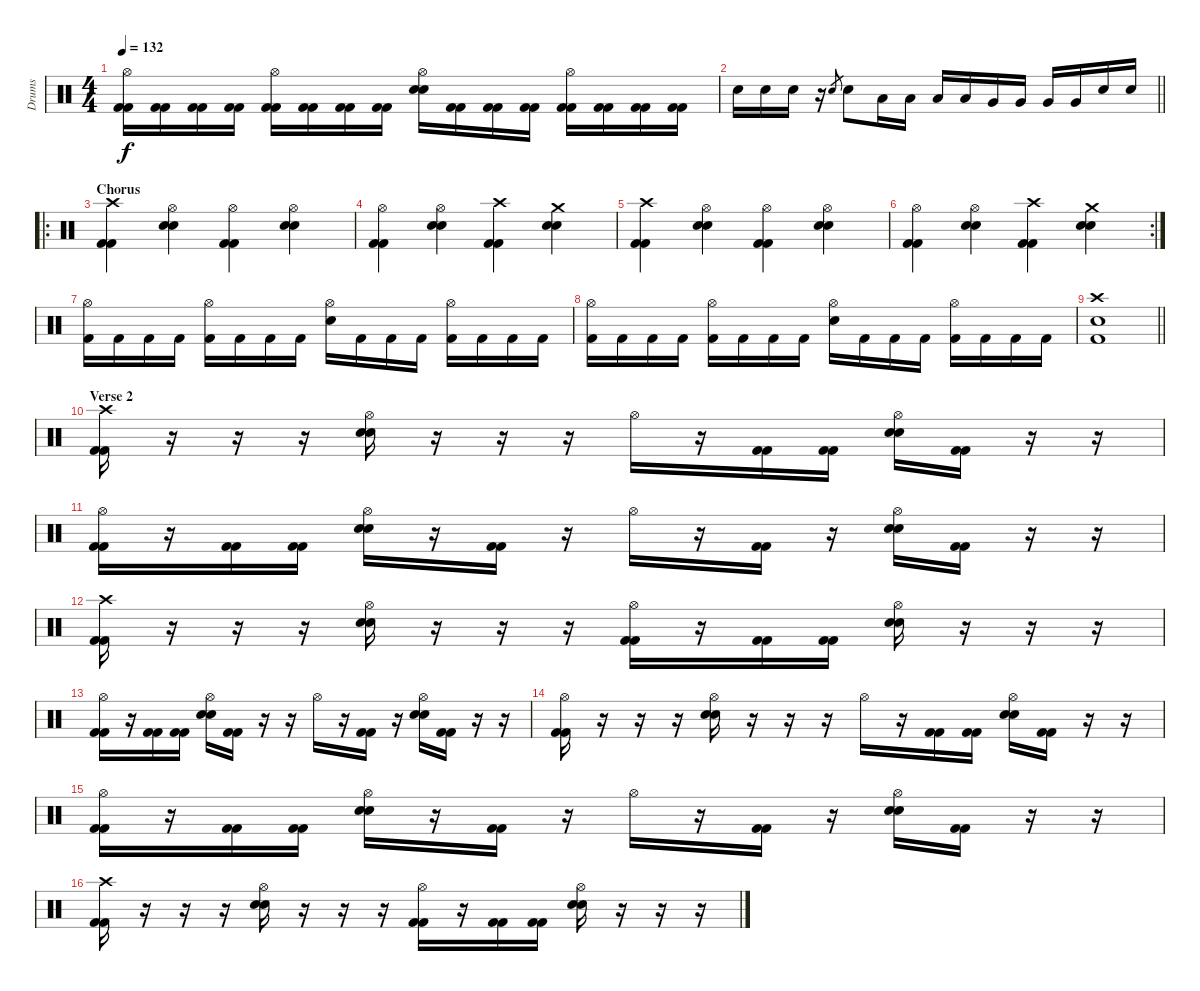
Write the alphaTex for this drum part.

\track ("Drums" "Drums") {instrument percussion}
\staff {score}
\articulation defaults
\ts (4 4)
\tempo 132
\clef neutral
\ks c
("Hi-Hat (open)" "Kick (hit) 2" "Kick (hit) 2").16{dy f} ("Kick (hit) 2" "Kick (hit) 2").16 ("Kick (hit) 2" "Kick (hit) 2").16 ("Kick (hit) 2" "Kick (hit) 2").16 ("Hi-Hat (open)" "Kick (hit) 2" "Kick (hit) 2").16 ("Kick (hit) 2" "Kick (hit) 2").16 ("Kick (hit) 2" "Kick (hit) 2").16 ("Kick (hit) 2" "Kick (hit) 2").16 ("Hi-Hat (open)" "Snare (hit) 2" "Snare (hit) 2").16 ("Kick (hit) 2" "Kick (hit) 2").16 ("Kick (hit) 2" "Kick (hit) 2").16 ("Kick (hit) 2" "Kick (hit) 2").16 ("Hi-Hat (open)" "Kick (hit) 2" "Kick (hit) 2").16 ("Kick (hit) 2" "Kick (hit) 2").16 ("Kick (hit) 2" "Kick (hit) 2").16 ("Kick (hit) 2" "Kick (hit) 2").16 |
\barLineRight lightlight "Electric Snare (hit)".16 "Electric Snare (hit)".16 "Electric Snare (hit)".16
r.16 "Electric Snare (hit)".8{gr} "Electric Snare (hit)".8 "Low Tom (hit)".16 "Low Tom (hit)".16 "Low Tom (hit)".16 "Low Tom (hit)".16 "Very Low Tom (hit)".16 "Very Low Tom (hit)".16 "Very Low Tom (hit)".16 "Very Low Tom (hit)".16 "Snare (hit) 2".16 "Snare (hit) 2".16 |
\ro
\section ("" "Chorus")
("Crash high (hit)" "Kick (hit) 2" "Kick (hit) 2").4 ("Hi-Hat (open)" "Snare (hit) 2" "Snare (hit) 2").4 ("Hi-Hat (open)" "Kick (hit) 2" "Kick (hit) 2").4 ("Hi-Hat (open)" "Snare (hit) 2" "Snare (hit) 2").4 |
("Hi-Hat (open)" "Kick (hit) 2" "Kick (hit) 2").4 ("Hi-Hat (open)" "Snare (hit) 2" "Snare (hit) 2").4 ("Crash high (hit)" "Kick (hit) 2" "Kick (hit) 2").4 ("Crash medium (hit)" "Snare (hit) 2" "Snare (hit) 2").4 |
("Crash high (hit)" "Kick (hit) 2" "Kick (hit) 2").4 ("Hi-Hat (open)" "Snare (hit) 2" "Snare (hit) 2").4 ("Hi-Hat (open)" "Kick (hit) 2" "Kick (hit) 2").4 ("Hi-Hat (open)" "Snare (hit) 2" "Snare (hit) 2").4 |
\rc 2
("Hi-Hat (open)" "Kick (hit) 2" "Kick (hit) 2").4 ("Hi-Hat (open)" "Snare (hit) 2" "Snare (hit) 2").4 ("Crash high (hit)" "Kick (hit) 2" "Kick (hit) 2").4 ("Crash medium (hit)" "Snare (hit) 2" "Snare (hit) 2").4 |
("Hi-Hat (open)" "Kick (hit) 2").16 "Kick (hit) 2".16 "Kick (hit) 2".16 "Kick (hit) 2".16 ("Hi-Hat (open)" "Kick (hit) 2").16 "Kick (hit) 2".16 "Kick (hit) 2".16 "Kick (hit) 2".16 ("Hi-Hat (open)" "Snare (hit) 2").16 "Kick (hit) 2".16 "Kick (hit) 2".16 "Kick (hit) 2".16 ("Hi-Hat (open)" "Kick (hit) 2").16 "Kick (hit) 2".16 "Kick (hit) 2".16 "Kick (hit) 2".16 |
("Hi-Hat (open)" "Kick (hit) 2").16 "Kick (hit) 2".16 "Kick (hit) 2".16 "Kick (hit) 2".16 ("Hi-Hat (open)" "Kick (hit) 2").16 "Kick (hit) 2".16 "Kick (hit) 2".16 "Kick (hit) 2".16 ("Hi-Hat (open)" "Snare (hit) 2").16 "Kick (hit) 2".16 "Kick (hit) 2".16 "Kick (hit) 2".16 ("Hi-Hat (open)" "Kick (hit) 2").16 "Kick (hit) 2".16 "Kick (hit) 2".16 "Kick (hit) 2".16 |
\barLineRight lightlight
("Crash high (hit)" "Snare (hit) 2" "Kick (hit) 2").1 |
\section ("" "Verse 2")
("Crash high (hit)" "Kick (hit) 2" "Kick (hit) 2").16 r.16 r.16 r.16 ("Hi-Hat (open)" "Snare (hit) 2" "Snare (hit) 2").16 r.16 r.16 r.16 "Hi-Hat (open)".16 r.16 ("Kick (hit) 2" "Kick (hit) 2").16 ("Kick (hit) 2" "Kick (hit) 2").16 ("Hi-Hat (open)" "Snare (hit) 2" "Snare (hit) 2").16 ("Kick (hit) 2" "Kick (hit) 2").16 r.16 r.16 |
("Hi-Hat (open)" "Kick (hit) 2" "Kick (hit) 2").16 r.16 ("Kick (hit) 2" "Kick (hit) 2").16 ("Kick (hit) 2" "Kick (hit) 2").16 ("Hi-Hat (open)" "Snare (hit) 2" "Snare (hit) 2").16 r.16 ("Kick (hit) 2" "Kick (hit) 2").16 r.16 "Hi-Hat (open)".16 r.16 ("Kick (hit) 2" "Kick (hit) 2").16 r.16 ("Hi-Hat (open)" "Snare (hit) 2" "Snare (hit) 2").16 ("Kick (hit) 2" "Kick (hit) 2").16 r.16 r.16 |
("Crash high (hit)" "Kick (hit) 2" "Kick (hit) 2").16 r.16 r.16 r.16 ("Hi-Hat (open)" "Snare (hit) 2" "Snare (hit) 2").16 r.16 r.16 r.16 ("Hi-Hat (open)" "Kick (hit) 2" "Kick (hit) 2").16 r.16 ("Kick (hit) 2" "Kick (hit) 2").16 ("Kick (hit) 2" "Kick (hit) 2").16 ("Hi-Hat (open)" "Snare (hit) 2" "Snare (hit) 2").16 r.16 r.16 r.16 |
("Hi-Hat (open)" "Kick (hit) 2" "Kick (hit) 2").16 r.16 ("Kick (hit) 2" "Kick (hit) 2").16 ("Kick (hit) 2" "Kick (hit) 2").16 ("Hi-Hat (open)" "Snare (hit) 2" "Snare (hit) 2").16 ("Kick (hit) 2" "Kick (hit) 2").16 r.16 r.16 "Hi-Hat (open)".16 r.16 ("Kick (hit) 2" "Kick (hit) 2").16 r.16 ("Hi-Hat (open)" "Snare (hit) 2" "Snare (hit) 2").16 ("Kick (hit) 2" "Kick (hit) 2").16 r.16 r.16 |
("Hi-Hat (open)" "Kick (hit) 2" "Kick (hit) 2").16 r.16 r.16 r.16 ("Hi-Hat (open)" "Snare (hit) 2" "Snare (hit) 2").16 r.16 r.16 r.16 "Hi-Hat (open)".16 r.16 ("Kick (hit) 2" "Kick (hit) 2").16 ("Kick (hit) 2" "Kick (hit) 2").16 ("Hi-Hat (open)" "Snare (hit) 2" "Snare (hit) 2").16 ("Kick (hit) 2" "Kick (hit) 2").16 r.16 r.16 |
("Hi-Hat (open)" "Kick (hit) 2" "Kick (hit) 2").16 r.16 ("Kick (hit) 2" "Kick (hit) 2").16 ("Kick (hit) 2" "Kick (hit) 2").16 ("Hi-Hat (open)" "Snare (hit) 2" "Snare (hit) 2").16 r.16 ("Kick (hit) 2" "Kick (hit) 2").16 r.16 "Hi-Hat (open)".16 r.16 ("Kick (hit) 2" "Kick (hit) 2").16 r.16 ("Hi-Hat (open)" "Snare (hit) 2" "Snare (hit) 2").16 ("Kick (hit) 2" "Kick (hit) 2").16 r.16 r.16 |
("Crash high (hit)" "Kick (hit) 2" "Kick (hit) 2").16 r.16 r.16 r.16 ("Hi-Hat (open)" "Snare (hit) 2" "Snare (hit) 2").16 r.16 r.16 r.16 ("Hi-Hat (open)" "Kick (hit) 2" "Kick (hit) 2").16 r.16 ("Kick (hit) 2" "Kick (hit) 2").16 ("Kick (hit) 2" "Kick (hit) 2").16 ("Hi-Hat (open)" "Snare (hit) 2" "Snare (hit) 2").16 r.16 r.16 r.16
